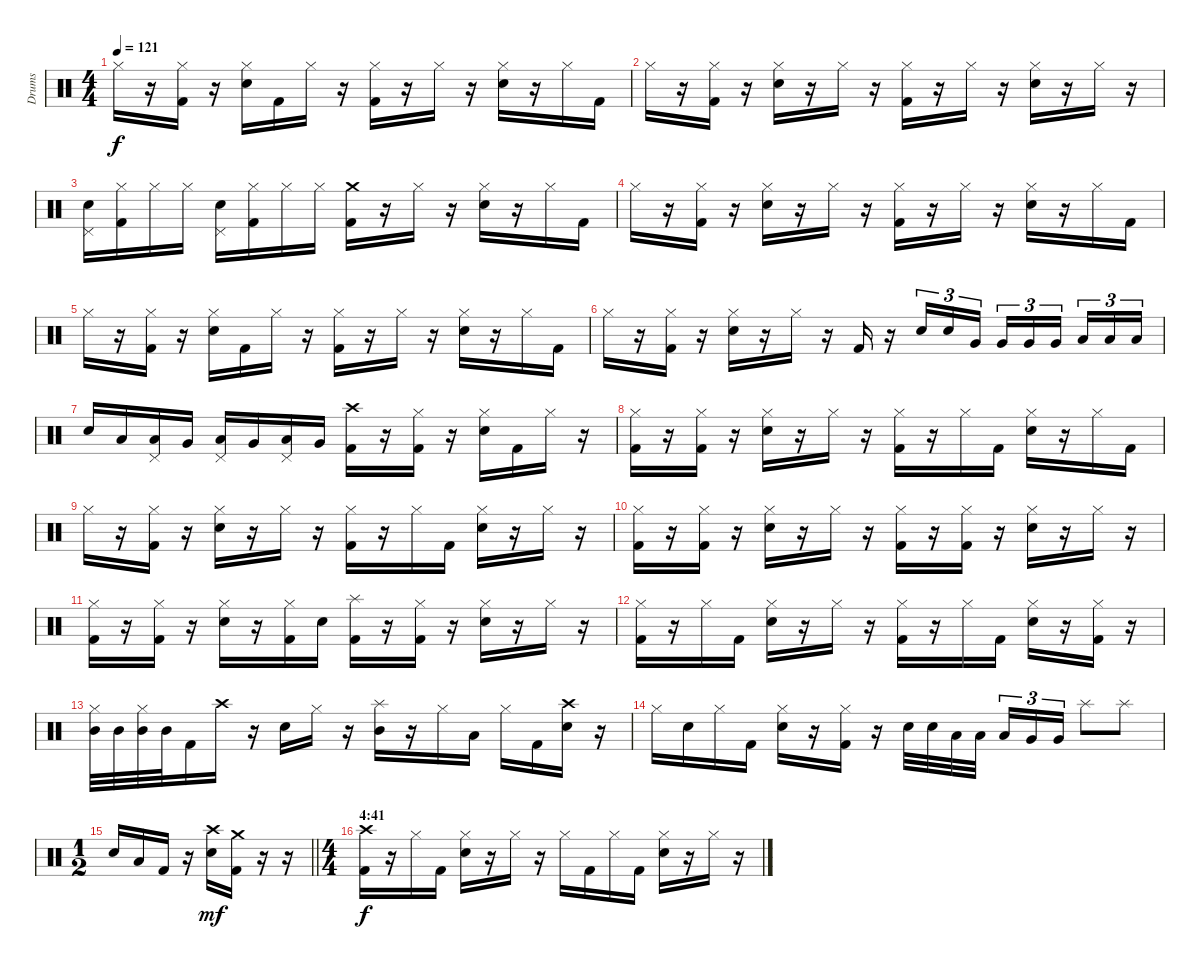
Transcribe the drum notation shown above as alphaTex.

\track ("Drums" "Drums") {instrument percussion}
\staff {score}
\articulation defaults
\ts (4 4)
\tempo 121
\clef neutral
\ks c "Hi-Hat (closed)".16{dy f}
r.16 ("Hi-Hat (closed)" "Kick (hit) 2").16 r.16 ("Hi-Hat (closed)" "Snare (hit) 2").16 "Kick (hit) 2".16 "Hi-Hat (closed)".16 r.16 ("Hi-Hat (closed)" "Kick (hit) 2").16 r.16 "Hi-Hat (closed)".16 r.16 ("Hi-Hat (closed)" "Snare (hit) 2").16 r.16 "Hi-Hat (closed)".16 "Kick (hit) 2".16 |
"Hi-Hat (closed)".16 r.16 ("Hi-Hat (closed)" "Kick (hit) 2").16 r.16 ("Hi-Hat (closed)" "Snare (hit) 2").16 r.16 "Hi-Hat (closed)".16 r.16 ("Hi-Hat (closed)" "Kick (hit) 2").16 r.16 "Hi-Hat (closed)".16 r.16 ("Hi-Hat (closed)" "Snare (hit) 2").16 r.16 "Hi-Hat (closed)".16 r.16 |
("Pedal Hi-Hat (hit)" "Snare (hit) 2").16 ("Hi-Hat (closed)" "Kick (hit) 2").16 "Hi-Hat (closed)".16 "Hi-Hat (closed)".16 ("Pedal Hi-Hat (hit)" "Snare (hit) 2").16 ("Hi-Hat (closed)" "Kick (hit) 2").16 "Hi-Hat (closed)".16 "Hi-Hat (closed)".16 ("Crash medium (hit)" "Kick (hit) 2").16 r.16 "Hi-Hat (closed)".16 r.16 ("Hi-Hat (closed)" "Snare (hit) 2").16 r.16 "Hi-Hat (closed)".16 "Kick (hit) 2".16 |
"Hi-Hat (closed)".16 r.16 ("Hi-Hat (closed)" "Kick (hit) 2").16 r.16 ("Hi-Hat (closed)" "Snare (hit) 2").16 r.16 "Hi-Hat (closed)".16 r.16 ("Hi-Hat (closed)" "Kick (hit) 2").16 r.16 "Hi-Hat (closed)".16 r.16 ("Hi-Hat (closed)" "Snare (hit) 2").16 r.16 "Hi-Hat (closed)".16 "Kick (hit) 2".16 |
"Hi-Hat (closed)".16 r.16 ("Hi-Hat (closed)" "Kick (hit) 2").16 r.16 ("Hi-Hat (closed)" "Snare (hit) 2").16 "Kick (hit) 2".16 "Hi-Hat (closed)".16 r.16 ("Hi-Hat (closed)" "Kick (hit) 2").16 r.16 "Hi-Hat (closed)".16 r.16 ("Hi-Hat (closed)" "Snare (hit) 2").16 r.16 "Hi-Hat (closed)".16 "Kick (hit) 2".16 |
"Hi-Hat (closed)".16 r.16 ("Hi-Hat (closed)" "Kick (hit) 2").16 r.16 ("Hi-Hat (closed)" "Snare (hit) 2").16 r.16 "Hi-Hat (closed)".16 r.16 "Kick (hit) 2".16 r.16 "Snare (hit) 2".16{tu (3 2)} "Snare (hit) 2".16{tu (3 2)} "Very Low Tom (hit)".16{tu (3 2)} "Very Low Tom (hit)".16{tu (3 2)} "Very Low Tom (hit)".16{tu (3 2)} "Very Low Tom (hit)".16{tu (3 2) beam splitsecondary} "Low Floor Tom (hit)".16{tu (3 2)} "Low Floor Tom (hit)".16{tu (3 2)} "Low Floor Tom (hit)".16{tu (3 2)} |
"Snare (hit) 2".16 "Low Tom (hit)".16 ("Pedal Hi-Hat (hit)" "Low Tom (hit)").16 "Very Low Tom (hit)".16 ("Pedal Hi-Hat (hit)" "Low Tom (hit)").16 "Very Low Tom (hit)".16 ("Pedal Hi-Hat (hit)" "Low Tom (hit)").16 "Very Low Tom (hit)".16 ("Crash high (hit)" "Kick (hit) 2").16 r.16 ("Hi-Hat (closed)" "Kick (hit) 2").16 r.16 ("Hi-Hat (closed)" "Snare (hit) 2").16 "Kick (hit) 2".16 "Hi-Hat (closed)".16 r.16 |
("Hi-Hat (closed)" "Kick (hit) 2").16 r.16 ("Hi-Hat (closed)" "Kick (hit) 2").16 r.16 ("Hi-Hat (closed)" "Snare (hit) 2").16 r.16 "Hi-Hat (closed)".16 r.16 ("Hi-Hat (closed)" "Kick (hit) 2").16 r.16 "Hi-Hat (closed)".16 "Kick (hit) 2".16 ("Hi-Hat (closed)" "Snare (hit) 2").16 r.16 "Hi-Hat (closed)".16 "Kick (hit) 2".16 |
"Hi-Hat (closed)".16 r.16 ("Hi-Hat (closed)" "Kick (hit) 2").16 r.16 ("Hi-Hat (closed)" "Snare (hit) 2").16 r.16 "Hi-Hat (closed)".16 r.16 ("Hi-Hat (closed)" "Kick (hit) 2").16 r.16 "Hi-Hat (closed)".16 "Kick (hit) 2".16 ("Hi-Hat (closed)" "Snare (hit) 2").16 r.16 "Hi-Hat (closed)".16 r.16 |
("Hi-Hat (closed)" "Kick (hit) 2").16 r.16 ("Hi-Hat (closed)" "Kick (hit) 2").16 r.16 ("Hi-Hat (closed)" "Snare (hit) 2").16 r.16 "Hi-Hat (closed)".16 r.16 ("Hi-Hat (closed)" "Kick (hit) 2").16 r.16 ("Hi-Hat (closed)" "Kick (hit) 2").16 r.16 ("Hi-Hat (closed)" "Snare (hit) 2").16 r.16 "Hi-Hat (closed)".16 r.16 |
("Hi-Hat (closed)" "Kick (hit) 2").16 r.16 ("Hi-Hat (closed)" "Kick (hit) 2").16 r.16 ("Hi-Hat (closed)" "Snare (hit) 2").16 r.16 ("Hi-Hat (closed)" "Kick (hit) 2").16 "Snare (hit) 2".16 ("Splash (hit)" "Kick (hit) 2").16 r.16 ("Hi-Hat (closed)" "Kick (hit) 2").16 r.16 ("Hi-Hat (closed)" "Snare (hit) 2").16 r.16 "Hi-Hat (closed)".16 r.16 |
("Hi-Hat (closed)" "Kick (hit) 2").16 r.16 "Hi-Hat (closed)".16 "Kick (hit) 2".16 ("Hi-Hat (closed)" "Snare (hit) 2").16 r.16 "Hi-Hat (closed)".16 r.16 ("Hi-Hat (closed)" "Kick (hit) 2").16 r.16 "Hi-Hat (closed)".16 "Kick (hit) 2".16 ("Hi-Hat (closed)" "Snare (hit) 2").16 r.16 ("Hi-Hat (closed)" "Kick (hit) 2").16 r.16 |
("Hi-Hat (closed)" "Mid Tom (hit)").32 "Mid Tom (hit)".32 ("Hi-Hat (closed)" "Mid Tom (hit)").32 "Mid Tom (hit)".32 "Kick (hit) 2".16 "Crash high (hit)".16 r.16 "Snare (hit) 2".16 "Hi-Hat (closed)".16 r.16 ("Splash (hit)" "Mid Tom (hit)").16 r.16 "Hi-Hat (closed)".16 "Low Tom (hit)".16 "Hi-Hat (closed)".16 "Kick (hit) 2".16 ("Crash high (hit)" "Snare (hit) 2").16 r.16 |
"Hi-Hat (closed)".16 "Snare (hit) 2".16 "Hi-Hat (closed)".16 "Kick (hit) 2".16 ("Hi-Hat (closed)" "Snare (hit) 2").16 r.16 ("Hi-Hat (closed)" "Kick (hit) 2").16 r.16 "Snare (hit) 2".32 "Snare (hit) 2".32 "Low Tom (hit)".32 "Low Tom (hit)".32{beam splitsecondary} "Low Tom (hit)".16{tu (3 2)} "Very Low Tom (hit)".16{tu (3 2)} "Very Low Tom (hit)".16{tu (3 2)} "Splash (hit)".8 "Splash (hit)".8 |
\ts (1 2)
\barLineRight lightlight "Snare (hit) 2".16 "Low Tom (hit)".16 "Kick (hit) 2".16
r.16 ("Crash high (hit)" "Snare (hit) 2").16{dy mf} ("Crash medium (hit)" "Kick (hit) 2").16 r.16 r.16 |
\ts (4 4)
\section ("" "4:41")
("Crash high (hit)" "Kick (hit) 2").16{dy f} r.16 "Hi-Hat (closed)".16 "Kick (hit) 2".16 ("Hi-Hat (closed)" "Snare (hit) 2").16 r.16 "Hi-Hat (closed)".16 r.16 "Hi-Hat (closed)".16 "Kick (hit) 2".16 "Hi-Hat (closed)".16 "Kick (hit) 2".16 ("Hi-Hat (closed)" "Snare (hit) 2").16 r.16 "Hi-Hat (closed)".16 r.16
